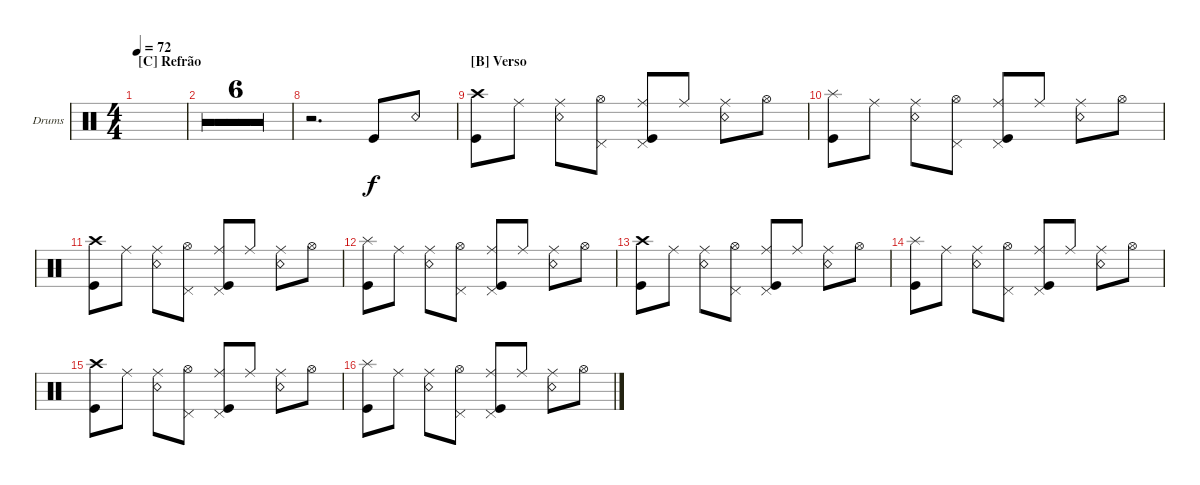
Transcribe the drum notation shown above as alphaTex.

\defaultSystemsLayout 4
\bracketExtendMode groupsimilarinstruments
\firstSystemTrackNameOrientation horizontal
\otherSystemsTrackNameOrientation horizontal
\track ("Drum" "Drums") {multiBarRest instrument percussion}
\staff {score}
\articulation defaults
\ts (4 4)
\section ("C" "Refrão")
\tempo 72
\clef neutral
\ks c
|
|
|
|
|
|
|
r.2{d} "Kick (hit)".8 "Snare (rim shot)".8 |
\section ("B" "Verso")
("Kick (hit)" "Crash high (hit)").8 "Ride (middle)".8 ("Snare (rim shot)" "Ride (middle)").8 ("Pedal Hi-Hat (hit)" "Hi-Hat (open)").8 ("Ride (middle)" "Kick (hit)" "Pedal Hi-Hat (hit)").8 "Ride (middle)".8 ("Ride (middle)" "Snare (rim shot)").8 "Hi-Hat (open)".8 |
("Kick (hit)" "Splash (hit)").8 "Ride (middle)".8 ("Snare (rim shot)" "Ride (middle)").8 ("Pedal Hi-Hat (hit)" "Hi-Hat (open)").8 ("Ride (middle)" "Kick (hit)" "Pedal Hi-Hat (hit)").8 "Ride (middle)".8 ("Ride (middle)" "Snare (rim shot)").8 "Hi-Hat (open)".8 |
("Kick (hit)" "Crash high (hit)").8 "Ride (middle)".8 ("Snare (rim shot)" "Ride (middle)").8 ("Pedal Hi-Hat (hit)" "Hi-Hat (open)").8 ("Ride (middle)" "Kick (hit)" "Pedal Hi-Hat (hit)").8 "Ride (middle)".8 ("Ride (middle)" "Snare (rim shot)").8 "Hi-Hat (open)".8 |
("Kick (hit)" "Splash (hit)").8 "Ride (middle)".8 ("Snare (rim shot)" "Ride (middle)").8 ("Pedal Hi-Hat (hit)" "Hi-Hat (open)").8 ("Ride (middle)" "Kick (hit)" "Pedal Hi-Hat (hit)").8 "Ride (middle)".8 ("Ride (middle)" "Snare (rim shot)").8 "Hi-Hat (open)".8 |
("Kick (hit)" "Crash high (hit)").8 "Ride (middle)".8 ("Snare (rim shot)" "Ride (middle)").8 ("Pedal Hi-Hat (hit)" "Hi-Hat (open)").8 ("Ride (middle)" "Kick (hit)" "Pedal Hi-Hat (hit)").8 "Ride (middle)".8 ("Ride (middle)" "Snare (rim shot)").8 "Hi-Hat (open)".8 |
("Kick (hit)" "Splash (hit)").8 "Ride (middle)".8 ("Snare (rim shot)" "Ride (middle)").8 ("Pedal Hi-Hat (hit)" "Hi-Hat (open)").8 ("Ride (middle)" "Kick (hit)" "Pedal Hi-Hat (hit)").8 "Ride (middle)".8 ("Ride (middle)" "Snare (rim shot)").8 "Hi-Hat (open)".8 |
("Kick (hit)" "Crash high (hit)").8 "Ride (middle)".8 ("Snare (rim shot)" "Ride (middle)").8 ("Pedal Hi-Hat (hit)" "Hi-Hat (open)").8 ("Ride (middle)" "Kick (hit)" "Pedal Hi-Hat (hit)").8 "Ride (middle)".8 ("Ride (middle)" "Snare (rim shot)").8 "Hi-Hat (open)".8 |
("Kick (hit)" "Splash (hit)").8 "Ride (middle)".8 ("Snare (rim shot)" "Ride (middle)").8 ("Pedal Hi-Hat (hit)" "Hi-Hat (open)").8 ("Ride (middle)" "Kick (hit)" "Pedal Hi-Hat (hit)").8 "Ride (middle)".8 ("Ride (middle)" "Snare (rim shot)").8 "Hi-Hat (open)".8
